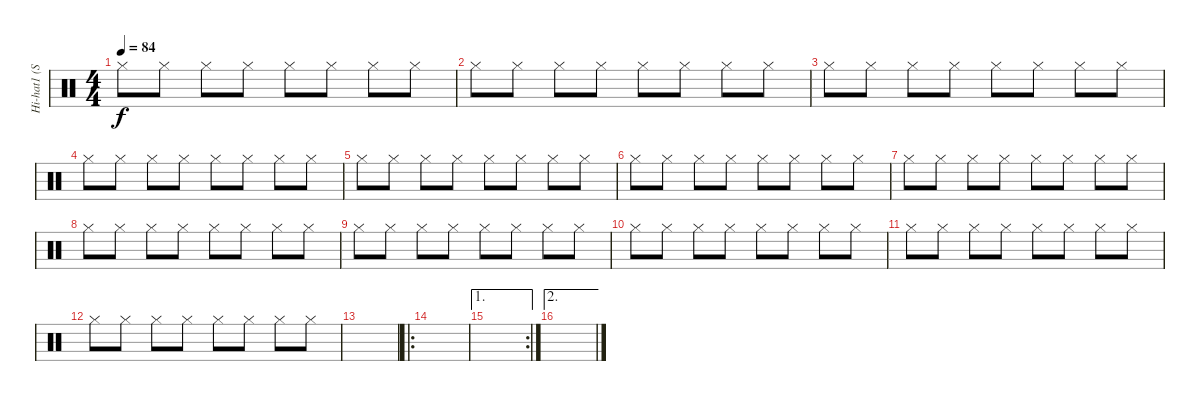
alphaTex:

\track ("Hi-hat1 (Silas)" "Hi-hat1 (S") {instrument percussion}
\staff {score}
\articulation defaults
\ts (4 4)
\tempo 84
\clef neutral
\ks c "Hi-Hat (closed)".8{dy f} "Hi-Hat (closed)".8 "Hi-Hat (closed)".8 "Hi-Hat (closed)".8 "Hi-Hat (closed)".8 "Hi-Hat (closed)".8 "Hi-Hat (closed)".8 "Hi-Hat (closed)".8
|
"Hi-Hat (closed)".8 "Hi-Hat (closed)".8 "Hi-Hat (closed)".8 "Hi-Hat (closed)".8 "Hi-Hat (closed)".8 "Hi-Hat (closed)".8 "Hi-Hat (closed)".8 "Hi-Hat (closed)".8 |
"Hi-Hat (closed)".8 "Hi-Hat (closed)".8 "Hi-Hat (closed)".8 "Hi-Hat (closed)".8 "Hi-Hat (closed)".8 "Hi-Hat (closed)".8 "Hi-Hat (closed)".8 "Hi-Hat (closed)".8 |
"Hi-Hat (closed)".8 "Hi-Hat (closed)".8 "Hi-Hat (closed)".8 "Hi-Hat (closed)".8 "Hi-Hat (closed)".8 "Hi-Hat (closed)".8 "Hi-Hat (closed)".8 "Hi-Hat (closed)".8 |
"Hi-Hat (closed)".8 "Hi-Hat (closed)".8 "Hi-Hat (closed)".8 "Hi-Hat (closed)".8 "Hi-Hat (closed)".8 "Hi-Hat (closed)".8 "Hi-Hat (closed)".8 "Hi-Hat (closed)".8 |
"Hi-Hat (closed)".8 "Hi-Hat (closed)".8 "Hi-Hat (closed)".8 "Hi-Hat (closed)".8 "Hi-Hat (closed)".8 "Hi-Hat (closed)".8 "Hi-Hat (closed)".8 "Hi-Hat (closed)".8 |
"Hi-Hat (closed)".8 "Hi-Hat (closed)".8 "Hi-Hat (closed)".8 "Hi-Hat (closed)".8 "Hi-Hat (closed)".8 "Hi-Hat (closed)".8 "Hi-Hat (closed)".8 "Hi-Hat (closed)".8 |
"Hi-Hat (closed)".8 "Hi-Hat (closed)".8 "Hi-Hat (closed)".8 "Hi-Hat (closed)".8 "Hi-Hat (closed)".8 "Hi-Hat (closed)".8 "Hi-Hat (closed)".8 "Hi-Hat (closed)".8 |
"Hi-Hat (closed)".8 "Hi-Hat (closed)".8 "Hi-Hat (closed)".8 "Hi-Hat (closed)".8 "Hi-Hat (closed)".8 "Hi-Hat (closed)".8 "Hi-Hat (closed)".8 "Hi-Hat (closed)".8 |
"Hi-Hat (closed)".8 "Hi-Hat (closed)".8 "Hi-Hat (closed)".8 "Hi-Hat (closed)".8 "Hi-Hat (closed)".8 "Hi-Hat (closed)".8 "Hi-Hat (closed)".8 "Hi-Hat (closed)".8 |
"Hi-Hat (closed)".8 "Hi-Hat (closed)".8 "Hi-Hat (closed)".8 "Hi-Hat (closed)".8 "Hi-Hat (closed)".8 "Hi-Hat (closed)".8 "Hi-Hat (closed)".8 "Hi-Hat (closed)".8 |
"Hi-Hat (closed)".8 "Hi-Hat (closed)".8 "Hi-Hat (closed)".8 "Hi-Hat (closed)".8 "Hi-Hat (closed)".8 "Hi-Hat (closed)".8 "Hi-Hat (closed)".8 "Hi-Hat (closed)".8 |
|
\ro
|
\ae 1
\rc 2
|
\ae 2
